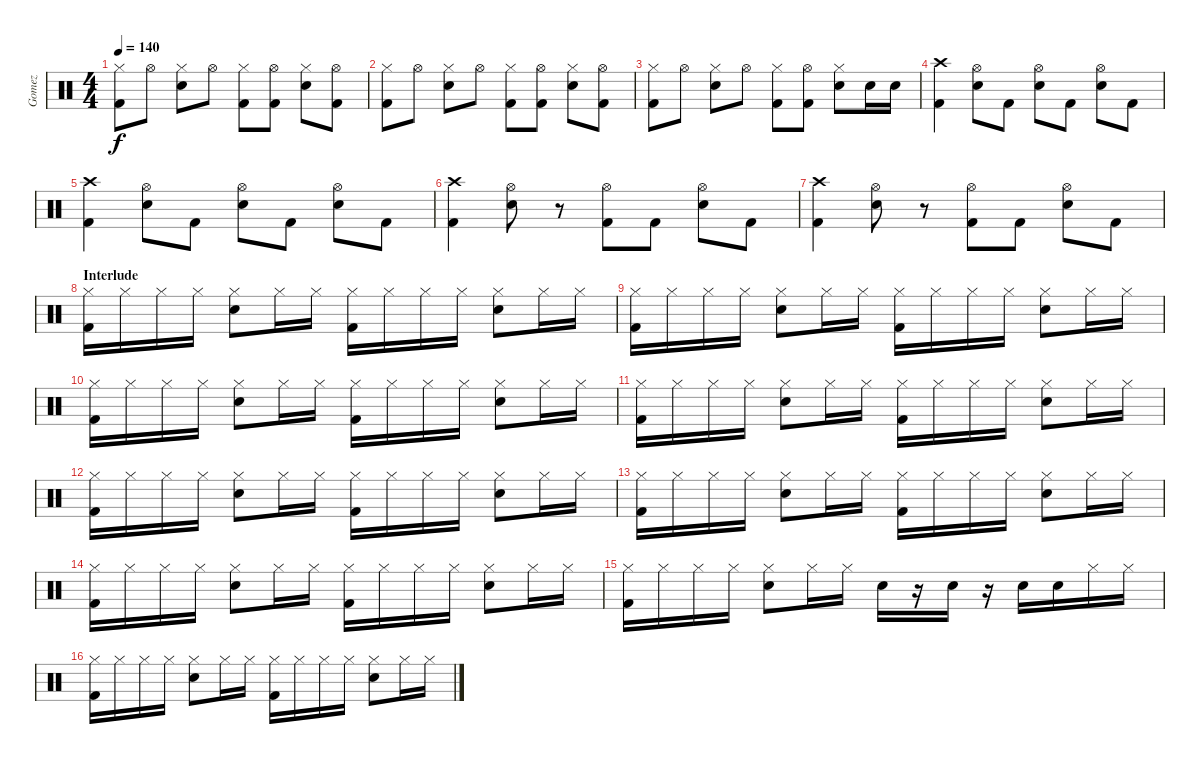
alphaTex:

\track ("Gomez" "Gomez") {instrument percussion}
\staff {score}
\articulation defaults
\ts (4 4)
\tempo 140
\clef neutral
\ks c
("Hi-Hat (closed)" "Kick (hit) 2").8{dy f} "Hi-Hat (open)".8 ("Hi-Hat (closed)" "Electric Snare (hit)").8 "Hi-Hat (open)".8 ("Hi-Hat (closed)" "Kick (hit) 2").8 ("Hi-Hat (open)" "Kick (hit) 2").8 ("Hi-Hat (closed)" "Electric Snare (hit)").8 ("Hi-Hat (open)" "Kick (hit) 2").8 |
("Hi-Hat (closed)" "Kick (hit) 2").8 "Hi-Hat (open)".8 ("Hi-Hat (closed)" "Electric Snare (hit)").8 "Hi-Hat (open)".8 ("Hi-Hat (closed)" "Kick (hit) 2").8 ("Hi-Hat (open)" "Kick (hit) 2").8 ("Hi-Hat (closed)" "Electric Snare (hit)").8 ("Hi-Hat (open)" "Kick (hit) 2").8 |
("Hi-Hat (closed)" "Kick (hit) 2").8 "Hi-Hat (open)".8 ("Hi-Hat (closed)" "Electric Snare (hit)").8 "Hi-Hat (open)".8 ("Hi-Hat (closed)" "Kick (hit) 2").8 ("Hi-Hat (open)" "Kick (hit) 2").8 ("Hi-Hat (closed)" "Electric Snare (hit)").8 "Electric Snare (hit)".16 "Electric Snare (hit)".16 |
("Crash high (hit)" "Kick (hit) 2").4{volume 16} ("Hi-Hat (open)" "Electric Snare (hit)").8 "Kick (hit) 2".8 ("Hi-Hat (open)" "Electric Snare (hit)").8 "Kick (hit) 2".8 ("Hi-Hat (open)" "Electric Snare (hit)").8 "Kick (hit) 2".8 |
("Crash high (hit)" "Kick (hit) 2").4 ("Hi-Hat (open)" "Electric Snare (hit)").8 "Kick (hit) 2".8 ("Hi-Hat (open)" "Electric Snare (hit)").8 "Kick (hit) 2".8 ("Hi-Hat (open)" "Electric Snare (hit)").8 "Kick (hit) 2".8 |
("Crash high (hit)" "Kick (hit) 2").4{volume 13} ("Hi-Hat (open)" "Electric Snare (hit)").8 r.8 ("Hi-Hat (open)" "Kick (hit) 2").8 "Kick (hit) 2".8 ("Hi-Hat (open)" "Electric Snare (hit)").8 "Kick (hit) 2".8 |
("Crash high (hit)" "Kick (hit) 2").4 ("Hi-Hat (open)" "Electric Snare (hit)").8 r.8 ("Hi-Hat (open)" "Kick (hit) 2").8 "Kick (hit) 2".8 ("Hi-Hat (open)" "Electric Snare (hit)").8 "Kick (hit) 2".8 |
\section ("" "Interlude")
("Hi-Hat (closed)" "Kick (hit) 2").16 "Hi-Hat (closed)".16 "Hi-Hat (closed)".16 "Hi-Hat (closed)".16 ("Hi-Hat (closed)" "Electric Snare (hit)").8 "Hi-Hat (closed)".16 "Hi-Hat (closed)".16 ("Hi-Hat (closed)" "Kick (hit) 2").16 "Hi-Hat (closed)".16 "Hi-Hat (closed)".16 "Hi-Hat (closed)".16 ("Hi-Hat (closed)" "Electric Snare (hit)").8 "Hi-Hat (closed)".16 "Hi-Hat (closed)".16 |
("Hi-Hat (closed)" "Kick (hit) 2").16 "Hi-Hat (closed)".16 "Hi-Hat (closed)".16 "Hi-Hat (closed)".16 ("Hi-Hat (closed)" "Electric Snare (hit)").8 "Hi-Hat (closed)".16 "Hi-Hat (closed)".16 ("Hi-Hat (closed)" "Kick (hit) 2").16 "Hi-Hat (closed)".16 "Hi-Hat (closed)".16 "Hi-Hat (closed)".16 ("Hi-Hat (closed)" "Electric Snare (hit)").8 "Hi-Hat (closed)".16 "Hi-Hat (closed)".16 |
("Hi-Hat (closed)" "Kick (hit) 2").16 "Hi-Hat (closed)".16 "Hi-Hat (closed)".16 "Hi-Hat (closed)".16 ("Hi-Hat (closed)" "Electric Snare (hit)").8 "Hi-Hat (closed)".16 "Hi-Hat (closed)".16 ("Hi-Hat (closed)" "Kick (hit) 2").16 "Hi-Hat (closed)".16 "Hi-Hat (closed)".16 "Hi-Hat (closed)".16 ("Hi-Hat (closed)" "Electric Snare (hit)").8 "Hi-Hat (closed)".16 "Hi-Hat (closed)".16 |
("Hi-Hat (closed)" "Kick (hit) 2").16 "Hi-Hat (closed)".16 "Hi-Hat (closed)".16 "Hi-Hat (closed)".16 ("Hi-Hat (closed)" "Electric Snare (hit)").8 "Hi-Hat (closed)".16 "Hi-Hat (closed)".16 ("Hi-Hat (closed)" "Kick (hit) 2").16 "Hi-Hat (closed)".16 "Hi-Hat (closed)".16 "Hi-Hat (closed)".16 ("Hi-Hat (closed)" "Electric Snare (hit)").8 "Hi-Hat (closed)".16 "Hi-Hat (closed)".16 |
("Hi-Hat (closed)" "Kick (hit) 2").16 "Hi-Hat (closed)".16 "Hi-Hat (closed)".16 "Hi-Hat (closed)".16 ("Hi-Hat (closed)" "Electric Snare (hit)").8 "Hi-Hat (closed)".16 "Hi-Hat (closed)".16 ("Hi-Hat (closed)" "Kick (hit) 2").16 "Hi-Hat (closed)".16 "Hi-Hat (closed)".16 "Hi-Hat (closed)".16 ("Hi-Hat (closed)" "Electric Snare (hit)").8 "Hi-Hat (closed)".16 "Hi-Hat (closed)".16 |
("Hi-Hat (closed)" "Kick (hit) 2").16 "Hi-Hat (closed)".16 "Hi-Hat (closed)".16 "Hi-Hat (closed)".16 ("Hi-Hat (closed)" "Electric Snare (hit)").8 "Hi-Hat (closed)".16 "Hi-Hat (closed)".16 ("Hi-Hat (closed)" "Kick (hit) 2").16 "Hi-Hat (closed)".16 "Hi-Hat (closed)".16 "Hi-Hat (closed)".16 ("Hi-Hat (closed)" "Electric Snare (hit)").8 "Hi-Hat (closed)".16 "Hi-Hat (closed)".16 |
("Hi-Hat (closed)" "Kick (hit) 2").16 "Hi-Hat (closed)".16 "Hi-Hat (closed)".16 "Hi-Hat (closed)".16 ("Hi-Hat (closed)" "Electric Snare (hit)").8 "Hi-Hat (closed)".16 "Hi-Hat (closed)".16 ("Hi-Hat (closed)" "Kick (hit) 2").16 "Hi-Hat (closed)".16 "Hi-Hat (closed)".16 "Hi-Hat (closed)".16 ("Hi-Hat (closed)" "Electric Snare (hit)").8 "Hi-Hat (closed)".16 "Hi-Hat (closed)".16 |
("Hi-Hat (closed)" "Kick (hit) 2").16 "Hi-Hat (closed)".16 "Hi-Hat (closed)".16 "Hi-Hat (closed)".16 ("Hi-Hat (closed)" "Electric Snare (hit)").8 "Hi-Hat (closed)".16 "Hi-Hat (closed)".16 "Electric Snare (hit)".16 r.16 "Electric Snare (hit)".16 r.16 "Electric Snare (hit)".16 "Electric Snare (hit)".16 "Hi-Hat (closed)".16 "Hi-Hat (closed)".16 |
("Hi-Hat (closed)" "Kick (hit) 2").16 "Hi-Hat (closed)".16 "Hi-Hat (closed)".16 "Hi-Hat (closed)".16 ("Hi-Hat (closed)" "Electric Snare (hit)").8 "Hi-Hat (closed)".16 "Hi-Hat (closed)".16 ("Hi-Hat (closed)" "Kick (hit) 2").16 "Hi-Hat (closed)".16 "Hi-Hat (closed)".16 "Hi-Hat (closed)".16 ("Hi-Hat (closed)" "Electric Snare (hit)").8 "Hi-Hat (closed)".16 "Hi-Hat (closed)".16
